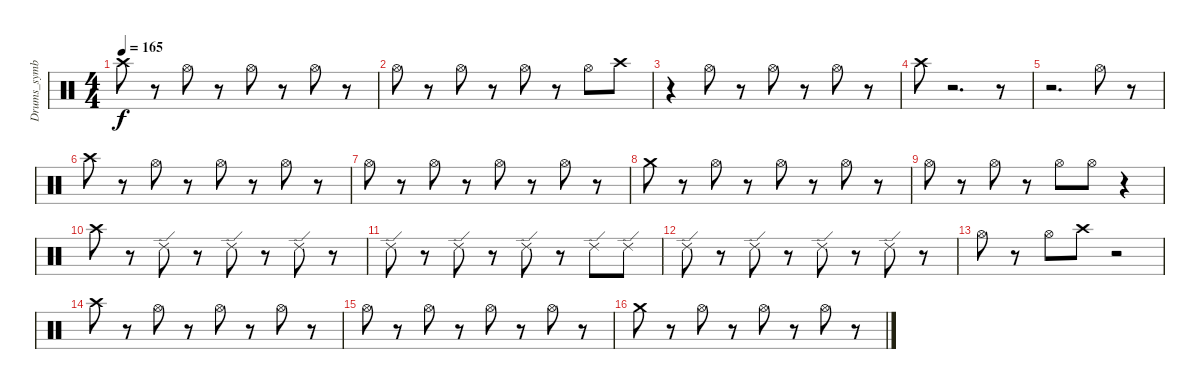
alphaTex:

\track ("Drums_symbal" "Drums_symb") {instrument percussion}
\staff {score}
\articulation defaults
\ts (4 4)
\tempo 165
\clef neutral
\ks c "Crash high (hit)".8{dy f}
r.8 "Hi-Hat (open)".8 r.8 "Hi-Hat (open)".8 r.8 "Hi-Hat (open)".8 r.8 |
"Hi-Hat (open)".8 r.8 "Hi-Hat (open)".8 r.8 "Hi-Hat (open)".8 r.8 "Hi-Hat (open)".8 "Crash high (hit)".8 |
r.4 "Hi-Hat (open)".8 r.8 "Hi-Hat (open)".8 r.8 "Hi-Hat (open)".8 r.8 |
"Crash high (hit)".8 r.2{d} r.8 |
r.2{d} "Hi-Hat (open)".8 r.8 |
"Crash high (hit)".8 r.8 "Hi-Hat (open)".8 r.8 "Hi-Hat (open)".8 r.8 "Hi-Hat (open)".8 r.8 |
"Hi-Hat (open)".8 r.8 "Hi-Hat (open)".8 r.8 "Hi-Hat (open)".8 r.8 "Hi-Hat (open)".8 r.8 |
"Crash medium (hit)".8 r.8 "Hi-Hat (open)".8 r.8 "Hi-Hat (open)".8 r.8 "Hi-Hat (open)".8 r.8 |
"Hi-Hat (open)".8 r.8 "Hi-Hat (open)".8 r.8 "Hi-Hat (open)".8 "Hi-Hat (open)".8 r.4 |
"Crash high (hit)".8 r.8 "Ride (edge) 2".8 r.8 "Ride (edge) 2".8 r.8 "Ride (edge) 2".8 r.8 |
"Ride (edge) 2".8 r.8 "Ride (edge) 2".8 r.8 "Ride (edge) 2".8 r.8 "Ride (edge) 2".8 "Ride (edge) 2".8 |
"Ride (edge) 2".8 r.8 "Ride (edge) 2".8 r.8 "Ride (edge) 2".8 r.8 "Ride (edge) 2".8 r.8 |
"Hi-Hat (open)".8 r.8 "Hi-Hat (open)".8 "Crash high (hit)".8 r.2 |
"Crash high (hit)".8 r.8 "Hi-Hat (open)".8 r.8 "Hi-Hat (open)".8 r.8 "Hi-Hat (open)".8 r.8 |
"Hi-Hat (open)".8 r.8 "Hi-Hat (open)".8 r.8 "Hi-Hat (open)".8 r.8 "Hi-Hat (open)".8 r.8 |
"Crash medium (hit)".8 r.8 "Hi-Hat (open)".8 r.8 "Hi-Hat (open)".8 r.8 "Hi-Hat (open)".8 r.8
